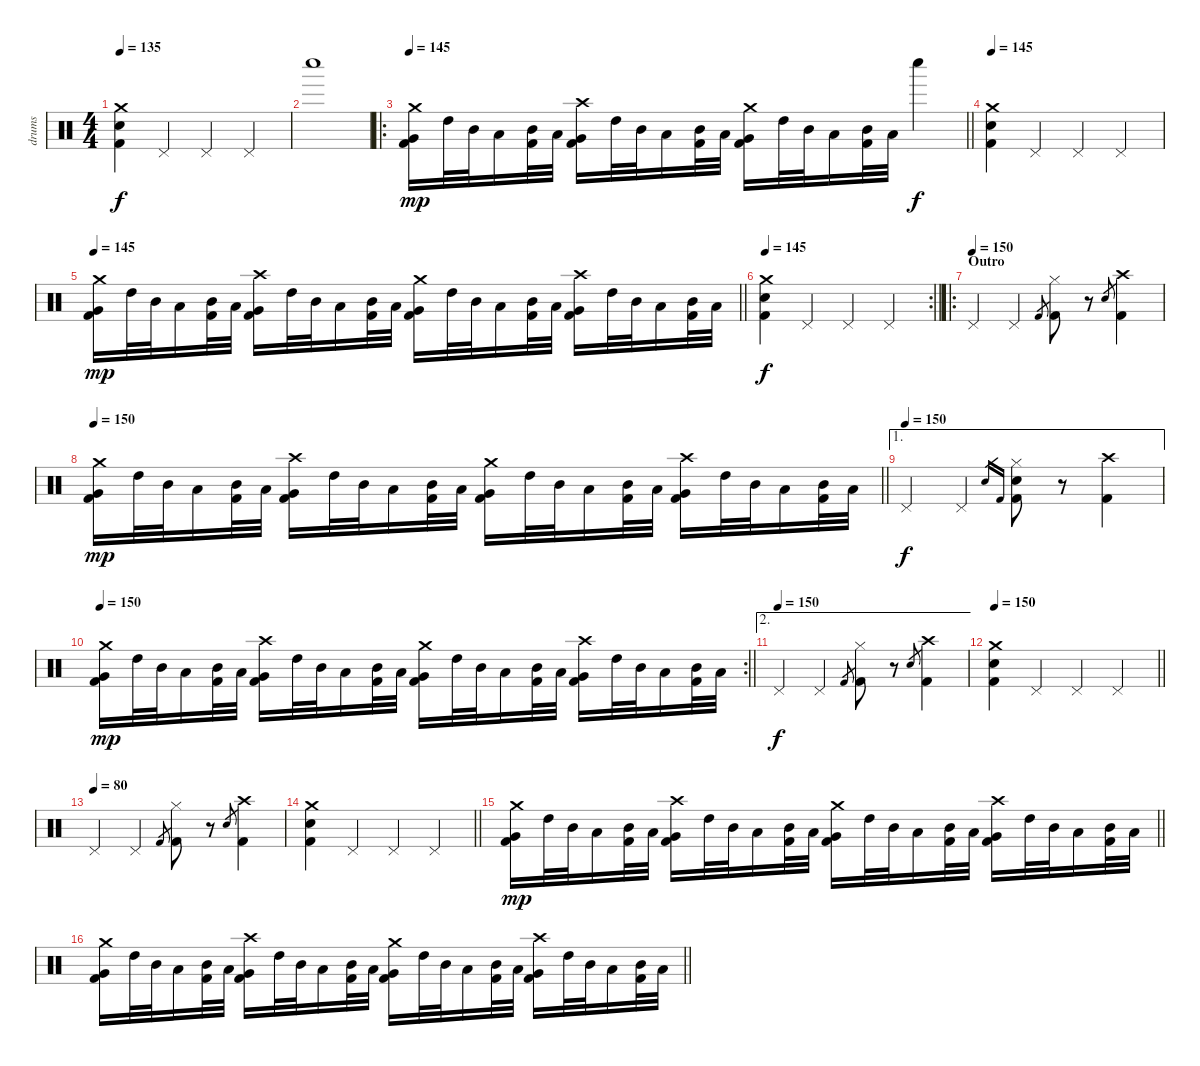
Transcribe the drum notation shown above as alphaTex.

\track ("drums" "drums") {instrument percussion}
\staff {score}
\articulation defaults
\ts (4 4)
\tempo 135
\clef neutral
\ks c
("Crash medium (hit)" "Snare (hit) 2" "Kick (hit) 2").4{dy f} "Pedal Hi-Hat (hit)".4 "Pedal Hi-Hat (hit)".4 "Pedal Hi-Hat (hit)".4 |
"Whistle low (hit)".1 |
\ro
\tempo 145
\barLineRight lightlight
("Crash medium (hit)" "Very Low Tom (hit)" "Kick (hit) 2").16{dy mp volume 7} "High Tom (hit)".32 "Mid Tom (hit)".32 "Low Tom (hit)".16 ("Mid Tom (hit)" "Kick (hit) 2").32 "Low Tom (hit)".32 ("Crash high (hit)" "Very Low Tom (hit)" "Kick (hit) 2").16 "High Tom (hit)".32 "Mid Tom (hit)".32 "Low Tom (hit)".16 ("Mid Tom (hit)" "Kick (hit) 2").32 "Low Tom (hit)".32 ("Crash medium (hit)" "Very Low Tom (hit)" "Kick (hit) 2").16 "High Tom (hit)".32 "Mid Tom (hit)".32 "Low Tom (hit)".16 ("Mid Tom (hit)" "Kick (hit) 2").32 "Low Tom (hit)".32 "Whistle low (hit)".4{dy f} |
\tempo 145
("Crash medium (hit)" "Snare (hit) 2" "Kick (hit) 2").4 "Pedal Hi-Hat (hit)".4 "Pedal Hi-Hat (hit)".4 "Pedal Hi-Hat (hit)".4 |
\tempo 145
\barLineRight lightlight
("Crash medium (hit)" "Very Low Tom (hit)" "Kick (hit) 2").16{dy mp} "High Tom (hit)".32 "Mid Tom (hit)".32 "Low Tom (hit)".16 ("Mid Tom (hit)" "Kick (hit) 2").32 "Low Tom (hit)".32 ("Crash high (hit)" "Very Low Tom (hit)" "Kick (hit) 2").16 "High Tom (hit)".32 "Mid Tom (hit)".32 "Low Tom (hit)".16 ("Mid Tom (hit)" "Kick (hit) 2").32 "Low Tom (hit)".32 ("Crash medium (hit)" "Very Low Tom (hit)" "Kick (hit) 2").16 "High Tom (hit)".32 "Mid Tom (hit)".32 "Low Tom (hit)".16 ("Mid Tom (hit)" "Kick (hit) 2").32 "Low Tom (hit)".32 ("Crash high (hit)" "Very Low Tom (hit)" "Kick (hit) 2").16 "High Tom (hit)".32 "Mid Tom (hit)".32 "Low Tom (hit)".16 ("Mid Tom (hit)" "Kick (hit) 2").32 "Low Tom (hit)".32 |
\rc 2
\tempo 145
\barLineRight lightlight
("Crash medium (hit)" "Snare (hit) 2" "Kick (hit) 2").4{dy f} "Pedal Hi-Hat (hit)".4 "Pedal Hi-Hat (hit)".4 "Pedal Hi-Hat (hit)".4 |
\ro
\section ("" "Outro")
\tempo (150)
"Pedal Hi-Hat (hit)".4 "Pedal Hi-Hat (hit)".4 "Kick (hit) 2".8{gr} ("Hi-Hat (closed)" "Kick (hit) 2").8 r.8 "Snare (hit) 2".8{gr} ("Crash high (hit)" "Kick (hit) 2").4 |
\tempo 150
\barLineRight lightlight
("Crash medium (hit)" "Very Low Tom (hit)" "Kick (hit) 2").16{dy mp} "High Tom (hit)".32 "Mid Tom (hit)".32 "Low Tom (hit)".16 ("Mid Tom (hit)" "Kick (hit) 2").32 "Low Tom (hit)".32 ("Crash high (hit)" "Very Low Tom (hit)" "Kick (hit) 2").16 "High Tom (hit)".32 "Mid Tom (hit)".32 "Low Tom (hit)".16 ("Mid Tom (hit)" "Kick (hit) 2").32 "Low Tom (hit)".32 ("Crash medium (hit)" "Very Low Tom (hit)" "Kick (hit) 2").16 "High Tom (hit)".32 "Mid Tom (hit)".32 "Low Tom (hit)".16 ("Mid Tom (hit)" "Kick (hit) 2").32 "Low Tom (hit)".32 ("Crash high (hit)" "Very Low Tom (hit)" "Kick (hit) 2").16 "High Tom (hit)".32 "Mid Tom (hit)".32 "Low Tom (hit)".16 ("Mid Tom (hit)" "Kick (hit) 2").32 "Low Tom (hit)".32 |
\ae 1
\tempo (150)
"Pedal Hi-Hat (hit)".4{dy f} "Pedal Hi-Hat (hit)".4 "Snare (hit) 2".16{gr} "Kick (hit) 2".16{gr} ("Hi-Hat (closed)" "Snare (hit) 2" "Kick (hit) 2").8 r.8 ("Crash high (hit)" "Kick (hit) 2").4 |
\rc 2
\tempo 150
\barLineRight lightlight
("Crash medium (hit)" "Very Low Tom (hit)" "Kick (hit) 2").16{dy mp} "High Tom (hit)".32 "Mid Tom (hit)".32 "Low Tom (hit)".16 ("Mid Tom (hit)" "Kick (hit) 2").32 "Low Tom (hit)".32 ("Crash high (hit)" "Very Low Tom (hit)" "Kick (hit) 2").16 "High Tom (hit)".32 "Mid Tom (hit)".32 "Low Tom (hit)".16 ("Mid Tom (hit)" "Kick (hit) 2").32 "Low Tom (hit)".32 ("Crash medium (hit)" "Very Low Tom (hit)" "Kick (hit) 2").16 "High Tom (hit)".32 "Mid Tom (hit)".32 "Low Tom (hit)".16 ("Mid Tom (hit)" "Kick (hit) 2").32 "Low Tom (hit)".32 ("Crash high (hit)" "Very Low Tom (hit)" "Kick (hit) 2").16 "High Tom (hit)".32 "Mid Tom (hit)".32 "Low Tom (hit)".16 ("Mid Tom (hit)" "Kick (hit) 2").32 "Low Tom (hit)".32 |
\ae 2
\tempo (150)
"Pedal Hi-Hat (hit)".4{dy f} "Pedal Hi-Hat (hit)".4 "Kick (hit) 2".8{gr} ("Hi-Hat (closed)" "Kick (hit) 2").8 r.8 "Snare (hit) 2".8{gr} ("Crash high (hit)" "Kick (hit) 2").4 |
\tempo 150
\barLineRight lightlight
("Crash medium (hit)" "Snare (hit) 2" "Kick (hit) 2").4 "Pedal Hi-Hat (hit)".4 "Pedal Hi-Hat (hit)".4 "Pedal Hi-Hat (hit)".4 |
\tempo (80)
"Pedal Hi-Hat (hit)".4 "Pedal Hi-Hat (hit)".4 "Kick (hit) 2".8{gr} ("Hi-Hat (closed)" "Kick (hit) 2").8 r.8 "Snare (hit) 2".8{gr} ("Crash high (hit)" "Kick (hit) 2").4 |
\barLineRight lightlight
("Crash medium (hit)" "Snare (hit) 2" "Kick (hit) 2").4 "Pedal Hi-Hat (hit)".4 "Pedal Hi-Hat (hit)".4 "Pedal Hi-Hat (hit)".4 |
\barLineRight lightlight
("Crash medium (hit)" "Very Low Tom (hit)" "Kick (hit) 2").16{dy mp} "High Tom (hit)".32 "Mid Tom (hit)".32 "Low Tom (hit)".16 ("Mid Tom (hit)" "Kick (hit) 2").32 "Low Tom (hit)".32 ("Crash high (hit)" "Very Low Tom (hit)" "Kick (hit) 2").16 "High Tom (hit)".32 "Mid Tom (hit)".32 "Low Tom (hit)".16 ("Mid Tom (hit)" "Kick (hit) 2").32 "Low Tom (hit)".32 ("Crash medium (hit)" "Very Low Tom (hit)" "Kick (hit) 2").16 "High Tom (hit)".32 "Mid Tom (hit)".32 "Low Tom (hit)".16 ("Mid Tom (hit)" "Kick (hit) 2").32 "Low Tom (hit)".32 ("Crash high (hit)" "Very Low Tom (hit)" "Kick (hit) 2").16 "High Tom (hit)".32 "Mid Tom (hit)".32 "Low Tom (hit)".16 ("Mid Tom (hit)" "Kick (hit) 2").32 "Low Tom (hit)".32 |
\barLineRight lightlight
("Crash medium (hit)" "Very Low Tom (hit)" "Kick (hit) 2").16 "High Tom (hit)".32 "Mid Tom (hit)".32 "Low Tom (hit)".16 ("Mid Tom (hit)" "Kick (hit) 2").32 "Low Tom (hit)".32 ("Crash high (hit)" "Very Low Tom (hit)" "Kick (hit) 2").16 "High Tom (hit)".32 "Mid Tom (hit)".32 "Low Tom (hit)".16 ("Mid Tom (hit)" "Kick (hit) 2").32 "Low Tom (hit)".32 ("Crash medium (hit)" "Very Low Tom (hit)" "Kick (hit) 2").16 "High Tom (hit)".32 "Mid Tom (hit)".32 "Low Tom (hit)".16 ("Mid Tom (hit)" "Kick (hit) 2").32 "Low Tom (hit)".32 ("Crash high (hit)" "Very Low Tom (hit)" "Kick (hit) 2").16 "High Tom (hit)".32 "Mid Tom (hit)".32 "Low Tom (hit)".16 ("Mid Tom (hit)" "Kick (hit) 2").32 "Low Tom (hit)".32
